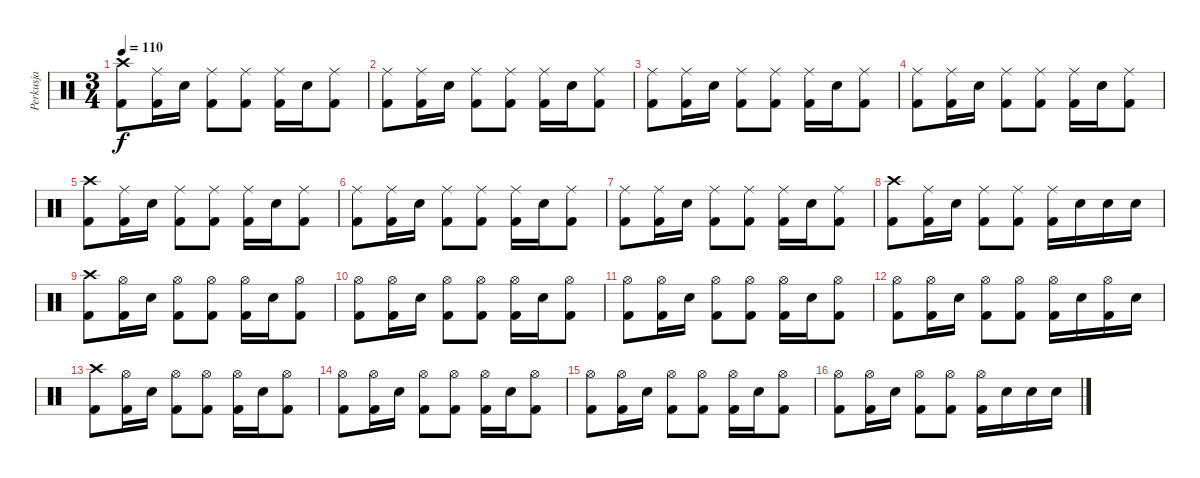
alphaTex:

\track ("Perkusja" "Perkusja") {instrument percussion}
\staff {score}
\articulation defaults
\ts (3 4)
\tempo 110
\clef neutral
\ks c
("Crash high (hit)" "Kick (hit) 2").8{dy f} ("Ride (middle)" "Kick (hit) 2").16 "Snare (hit) 2".16 ("Ride (middle)" "Kick (hit) 2").8 ("Ride (middle)" "Kick (hit) 2").8 ("Ride (middle)" "Kick (hit) 2").16 "Snare (hit) 2".16 ("Ride (middle)" "Kick (hit) 2").8 |
("Ride (middle)" "Kick (hit) 2").8 ("Ride (middle)" "Kick (hit) 2").16 "Snare (hit) 2".16 ("Ride (middle)" "Kick (hit) 2").8 ("Ride (middle)" "Kick (hit) 2").8 ("Ride (middle)" "Kick (hit) 2").16 "Snare (hit) 2".16 ("Ride (middle)" "Kick (hit) 2").8 |
("Ride (middle)" "Kick (hit) 2").8 ("Ride (middle)" "Kick (hit) 2").16 "Snare (hit) 2".16 ("Ride (middle)" "Kick (hit) 2").8 ("Ride (middle)" "Kick (hit) 2").8 ("Ride (middle)" "Kick (hit) 2").16 "Snare (hit) 2".16 ("Ride (middle)" "Kick (hit) 2").8 |
("Ride (middle)" "Kick (hit) 2").8 ("Ride (middle)" "Kick (hit) 2").16 "Snare (hit) 2".16 ("Ride (middle)" "Kick (hit) 2").8 ("Ride (middle)" "Kick (hit) 2").8 ("Ride (middle)" "Kick (hit) 2").16 "Snare (hit) 2".16 ("Ride (middle)" "Kick (hit) 2").8 |
("Crash high (hit)" "Kick (hit) 2").8 ("Ride (middle)" "Kick (hit) 2").16 "Snare (hit) 2".16 ("Ride (middle)" "Kick (hit) 2").8 ("Ride (middle)" "Kick (hit) 2").8 ("Ride (middle)" "Kick (hit) 2").16 "Snare (hit) 2".16 ("Ride (middle)" "Kick (hit) 2").8 |
("Ride (middle)" "Kick (hit) 2").8 ("Ride (middle)" "Kick (hit) 2").16 "Snare (hit) 2".16 ("Ride (middle)" "Kick (hit) 2").8 ("Ride (middle)" "Kick (hit) 2").8 ("Ride (middle)" "Kick (hit) 2").16 "Snare (hit) 2".16 ("Ride (middle)" "Kick (hit) 2").8 |
("Ride (middle)" "Kick (hit) 2").8 ("Ride (middle)" "Kick (hit) 2").16 "Snare (hit) 2".16 ("Ride (middle)" "Kick (hit) 2").8 ("Ride (middle)" "Kick (hit) 2").8 ("Ride (middle)" "Kick (hit) 2").16 "Snare (hit) 2".16 ("Ride (middle)" "Kick (hit) 2").8 |
("Crash high (hit)" "Kick (hit) 2").8 ("Ride (middle)" "Kick (hit) 2").16 "Snare (hit) 2".16 ("Ride (middle)" "Kick (hit) 2").8 ("Ride (middle)" "Kick (hit) 2").8 ("Ride (middle)" "Kick (hit) 2").16 "Snare (hit) 2".16 "Snare (hit) 2".16 "Snare (hit) 2".16 |
("Crash high (hit)" "Kick (hit) 2").8 ("Hi-Hat (open)" "Kick (hit) 2").16 "Snare (hit) 2".16 ("Hi-Hat (open)" "Kick (hit) 2").8 ("Hi-Hat (open)" "Kick (hit) 2").8 ("Hi-Hat (open)" "Kick (hit) 2").16 "Snare (hit) 2".16 ("Hi-Hat (open)" "Kick (hit) 2").8 |
("Hi-Hat (open)" "Kick (hit) 2").8 ("Hi-Hat (open)" "Kick (hit) 2").16 "Snare (hit) 2".16 ("Hi-Hat (open)" "Kick (hit) 2").8 ("Hi-Hat (open)" "Kick (hit) 2").8 ("Hi-Hat (open)" "Kick (hit) 2").16 "Snare (hit) 2".16 ("Hi-Hat (open)" "Kick (hit) 2").8 |
("Hi-Hat (open)" "Kick (hit) 2").8 ("Hi-Hat (open)" "Kick (hit) 2").16 "Snare (hit) 2".16 ("Hi-Hat (open)" "Kick (hit) 2").8 ("Hi-Hat (open)" "Kick (hit) 2").8 ("Hi-Hat (open)" "Kick (hit) 2").16 "Snare (hit) 2".16 ("Hi-Hat (open)" "Kick (hit) 2").8 |
("Hi-Hat (open)" "Kick (hit) 2").8 ("Hi-Hat (open)" "Kick (hit) 2").16 "Snare (hit) 2".16 ("Hi-Hat (open)" "Kick (hit) 2").8 ("Hi-Hat (open)" "Kick (hit) 2").8 ("Hi-Hat (open)" "Kick (hit) 2").16 "Snare (hit) 2".16 ("Hi-Hat (open)" "Kick (hit) 2").16 "Snare (hit) 2".16 |
("Crash high (hit)" "Kick (hit) 2").8 ("Hi-Hat (open)" "Kick (hit) 2").16 "Snare (hit) 2".16 ("Hi-Hat (open)" "Kick (hit) 2").8 ("Hi-Hat (open)" "Kick (hit) 2").8 ("Hi-Hat (open)" "Kick (hit) 2").16 "Snare (hit) 2".16 ("Hi-Hat (open)" "Kick (hit) 2").8 |
("Hi-Hat (open)" "Kick (hit) 2").8 ("Hi-Hat (open)" "Kick (hit) 2").16 "Snare (hit) 2".16 ("Hi-Hat (open)" "Kick (hit) 2").8 ("Hi-Hat (open)" "Kick (hit) 2").8 ("Hi-Hat (open)" "Kick (hit) 2").16 "Snare (hit) 2".16 ("Hi-Hat (open)" "Kick (hit) 2").8 |
("Hi-Hat (open)" "Kick (hit) 2").8 ("Hi-Hat (open)" "Kick (hit) 2").16 "Snare (hit) 2".16 ("Hi-Hat (open)" "Kick (hit) 2").8 ("Hi-Hat (open)" "Kick (hit) 2").8 ("Hi-Hat (open)" "Kick (hit) 2").16 "Snare (hit) 2".16 ("Hi-Hat (open)" "Kick (hit) 2").8 |
("Hi-Hat (open)" "Kick (hit) 2").8 ("Hi-Hat (open)" "Kick (hit) 2").16 "Snare (hit) 2".16 ("Hi-Hat (open)" "Kick (hit) 2").8 ("Hi-Hat (open)" "Kick (hit) 2").8 ("Hi-Hat (open)" "Kick (hit) 2").16 "Snare (hit) 2".16 "Snare (hit) 2".16 "Snare (hit) 2".16
